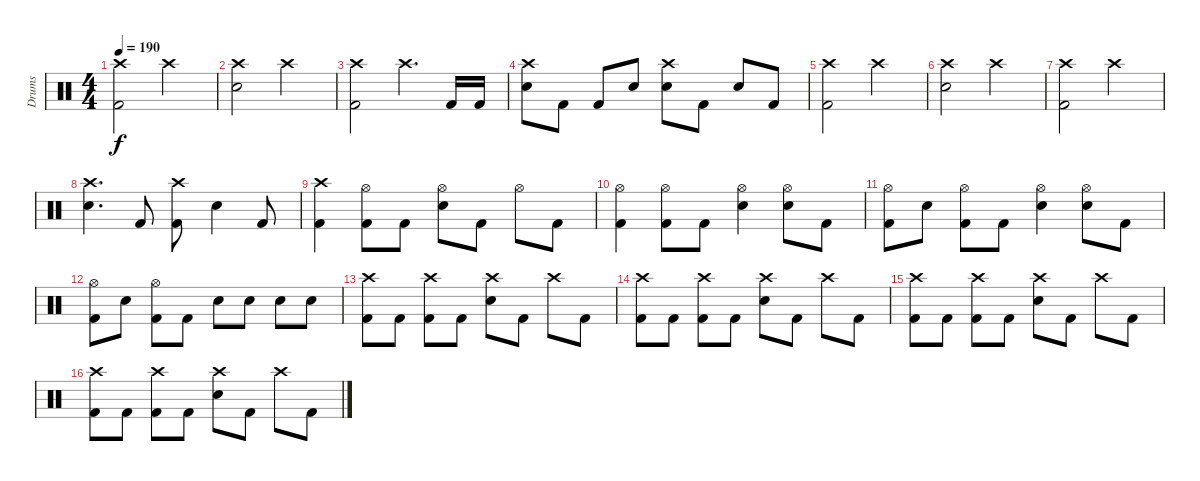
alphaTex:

\track ("Drums" "Drums") {instrument percussion}
\staff {score}
\articulation defaults
\ts (4 4)
\tempo 190
\clef neutral
\ks c
("Crash high (hit)" "Kick (hit) 2").2{dy f} "Crash high (hit)".2 |
("Crash high (hit)" "Electric Snare (hit)").2 "Crash high (hit)".2 |
("Crash high (hit)" "Kick (hit) 2").2 "Crash high (hit)".4{d} "Kick (hit) 2".16 "Kick (hit) 2".16 |
("Crash high (hit)" "Electric Snare (hit)").8 "Kick (hit) 2".8 "Kick (hit) 2".8 "Electric Snare (hit)".8 ("Crash high (hit)" "Electric Snare (hit)").8 "Kick (hit) 2".8 "Electric Snare (hit)".8 "Kick (hit) 2".8 |
("Crash high (hit)" "Kick (hit) 2").2 "Crash high (hit)".2 |
("Crash high (hit)" "Electric Snare (hit)").2 "Crash high (hit)".2 |
("Crash high (hit)" "Kick (hit) 2").2 "Crash high (hit)".2 |
("Crash high (hit)" "Electric Snare (hit)").4{d} "Kick (hit) 2".8 ("Crash high (hit)" "Kick (hit) 2").8 "Electric Snare (hit)".4 "Kick (hit) 2".8 |
("Crash high (hit)" "Kick (hit) 2").4 ("Hi-Hat (open)" "Kick (hit) 2").8 "Kick (hit) 2".8 ("Hi-Hat (open)" "Electric Snare (hit)").8 "Kick (hit) 2".8 "Hi-Hat (open)".8 "Kick (hit) 2".8 |
("Hi-Hat (open)" "Kick (hit) 2").4 ("Hi-Hat (open)" "Kick (hit) 2").8 "Kick (hit) 2".8 ("Hi-Hat (open)" "Electric Snare (hit)").4 ("Hi-Hat (open)" "Electric Snare (hit)").8 "Kick (hit) 2".8 |
("Hi-Hat (open)" "Kick (hit) 2").8 "Electric Snare (hit)".8 ("Hi-Hat (open)" "Kick (hit) 2").8 "Kick (hit) 2".8 ("Hi-Hat (open)" "Electric Snare (hit)").4 ("Hi-Hat (open)" "Electric Snare (hit)").8 "Kick (hit) 2".8 |
("Hi-Hat (open)" "Kick (hit) 2").8 "Electric Snare (hit)".8 ("Hi-Hat (open)" "Kick (hit) 2").8 "Kick (hit) 2".8 "Electric Snare (hit)".8 "Electric Snare (hit)".8 "Electric Snare (hit)".8 "Electric Snare (hit)".8 |
("Crash high (hit)" "Kick (hit) 2").8 "Kick (hit) 2".8 ("Crash high (hit)" "Kick (hit) 2").8 "Kick (hit) 2".8 ("Crash high (hit)" "Electric Snare (hit)").8 "Kick (hit) 2".8 "Crash high (hit)".8 "Kick (hit) 2".8 |
("Crash high (hit)" "Kick (hit) 2").8 "Kick (hit) 2".8 ("Crash high (hit)" "Kick (hit) 2").8 "Kick (hit) 2".8 ("Crash high (hit)" "Electric Snare (hit)").8 "Kick (hit) 2".8 "Crash high (hit)".8 "Kick (hit) 2".8 |
("Crash high (hit)" "Kick (hit) 2").8 "Kick (hit) 2".8 ("Crash high (hit)" "Kick (hit) 2").8 "Kick (hit) 2".8 ("Crash high (hit)" "Electric Snare (hit)").8 "Kick (hit) 2".8 "Crash high (hit)".8 "Kick (hit) 2".8 |
("Crash high (hit)" "Kick (hit) 2").8 "Kick (hit) 2".8 ("Crash high (hit)" "Kick (hit) 2").8 "Kick (hit) 2".8 ("Crash high (hit)" "Electric Snare (hit)").8 "Kick (hit) 2".8 "Crash high (hit)".8 "Kick (hit) 2".8
